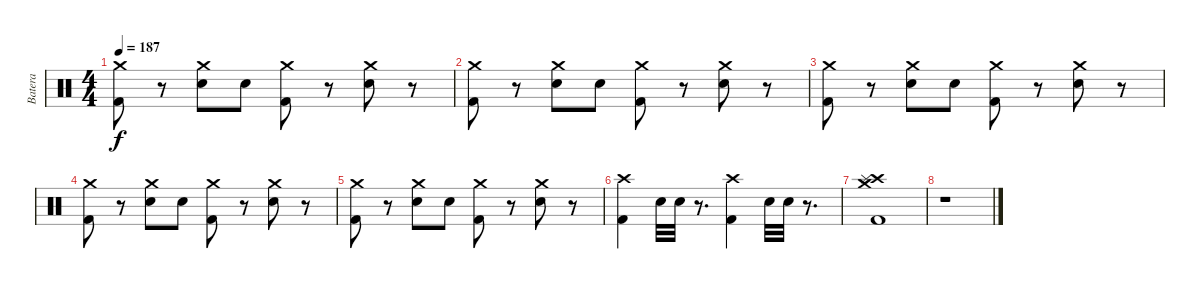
\track ("Batera" "Batera") {instrument percussion}
\staff {score}
\articulation defaults
\ts (4 4)
\tempo 187
\clef neutral
\ks c
("Crash medium (hit)" "Kick (hit) 2").8{dy f} r.8 ("Crash medium (hit)" "Electric Snare (hit)").8 "Electric Snare (hit)".8 ("Crash medium (hit)" "Kick (hit) 2").8 r.8 ("Crash medium (hit)" "Electric Snare (hit)").8 r.8 |
("Crash medium (hit)" "Kick (hit) 2").8 r.8 ("Crash medium (hit)" "Electric Snare (hit)").8 "Electric Snare (hit)".8 ("Crash medium (hit)" "Kick (hit) 2").8 r.8 ("Crash medium (hit)" "Electric Snare (hit)").8 r.8 |
("Crash medium (hit)" "Kick (hit) 2").8 r.8 ("Crash medium (hit)" "Electric Snare (hit)").8 "Electric Snare (hit)".8 ("Crash medium (hit)" "Kick (hit) 2").8 r.8 ("Crash medium (hit)" "Electric Snare (hit)").8 r.8 |
("Crash medium (hit)" "Kick (hit) 2").8 r.8 ("Crash medium (hit)" "Electric Snare (hit)").8 "Electric Snare (hit)".8 ("Crash medium (hit)" "Kick (hit) 2").8 r.8 ("Crash medium (hit)" "Electric Snare (hit)").8 r.8 |
("Crash medium (hit)" "Kick (hit) 2").8 r.8 ("Crash medium (hit)" "Electric Snare (hit)").8 "Electric Snare (hit)".8 ("Crash medium (hit)" "Kick (hit) 2").8 r.8 ("Crash medium (hit)" "Electric Snare (hit)").8 r.8 |
("Crash high (hit)" "Kick (hit) 2").4 "Electric Snare (hit)".32 "Electric Snare (hit)".32 r.8{d} ("Crash high (hit)" "Kick (hit) 2").4 "Electric Snare (hit)".32 "Electric Snare (hit)".32 r.8{d} |
("Crash high (hit)" "Splash (hit)" "Crash medium (hit)" "Kick (hit) 2").1 |
r.1
